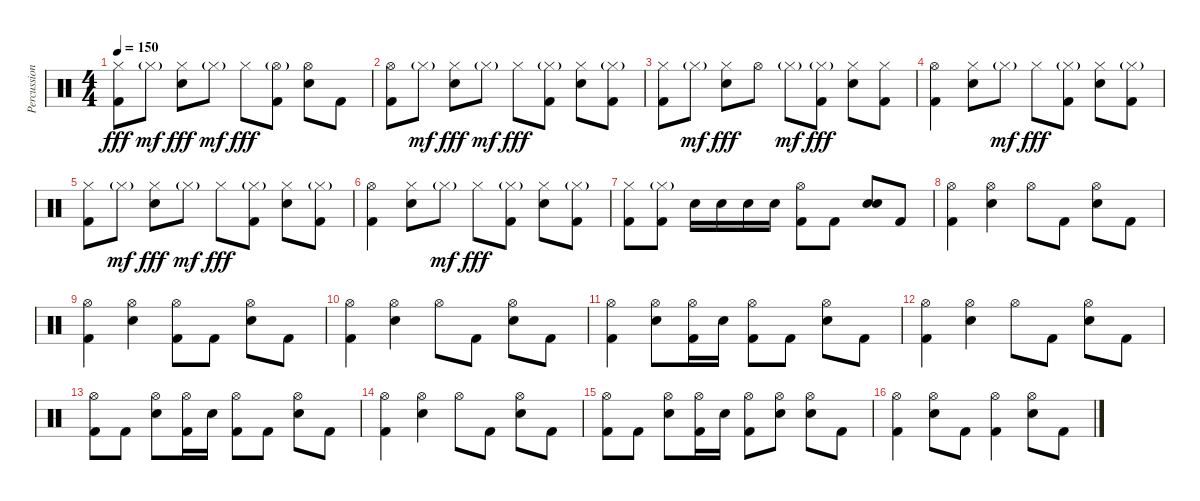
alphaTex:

\track ("Percussion" "Percussion") {instrument percussion}
\staff {score}
\articulation defaults
\ts (4 4)
\tempo 150
\clef neutral
\ks c
("Hi-Hat (closed)" "Kick (hit) 2").8{dy fff} "Hi-Hat (closed)"{g}.8{dy mf} ("Hi-Hat (closed)" "Electric Snare (hit)").8{dy fff} "Hi-Hat (closed)"{g}.8{dy mf} "Hi-Hat (closed)".8{dy fff} ("Hi-Hat (open)"{g} "Kick (hit) 2").8 ("Hi-Hat (open)" "Electric Snare (hit)").8 "Kick (hit) 2".8 |
("Hi-Hat (open)" "Kick (hit) 2").8 "Hi-Hat (closed)"{g}.8{dy mf} ("Hi-Hat (closed)" "Electric Snare (hit)").8{dy fff} "Hi-Hat (closed)"{g}.8{dy mf} "Hi-Hat (closed)".8{dy fff} ("Hi-Hat (closed)"{g} "Kick (hit) 2").8 ("Hi-Hat (closed)" "Electric Snare (hit)").8 ("Hi-Hat (closed)"{g} "Kick (hit) 2").8 |
("Hi-Hat (closed)" "Kick (hit) 2").8 "Hi-Hat (closed)"{g}.8{dy mf} ("Hi-Hat (closed)" "Electric Snare (hit)").8{dy fff} "Hi-Hat (open)".8 "Hi-Hat (closed)"{g}.8{dy mf} ("Hi-Hat (closed)"{g} "Kick (hit) 2").8{dy fff} ("Hi-Hat (closed)" "Electric Snare (hit)").8 ("Hi-Hat (closed)" "Kick (hit) 2").8 |
("Hi-Hat (open)" "Kick (hit) 2").4 ("Hi-Hat (closed)" "Electric Snare (hit)").8 "Hi-Hat (closed)"{g}.8{dy mf} "Hi-Hat (closed)".8{dy fff} ("Hi-Hat (closed)"{g} "Kick (hit) 2").8 ("Hi-Hat (closed)" "Electric Snare (hit)").8 ("Hi-Hat (closed)"{g} "Kick (hit) 2").8 |
("Hi-Hat (closed)" "Kick (hit) 2").8 "Hi-Hat (closed)"{g}.8{dy mf} ("Hi-Hat (closed)" "Electric Snare (hit)").8{dy fff} "Hi-Hat (closed)"{g}.8{dy mf} "Hi-Hat (closed)".8{dy fff} ("Hi-Hat (closed)"{g} "Kick (hit) 2").8 ("Hi-Hat (closed)" "Electric Snare (hit)").8 ("Hi-Hat (closed)"{g} "Kick (hit) 2").8 |
("Hi-Hat (open)" "Kick (hit) 2").4 ("Hi-Hat (closed)" "Electric Snare (hit)").8 "Hi-Hat (closed)"{g}.8{dy mf} "Hi-Hat (closed)".8{dy fff} ("Hi-Hat (closed)"{g} "Kick (hit) 2").8 ("Hi-Hat (closed)" "Electric Snare (hit)").8 ("Hi-Hat (closed)"{g} "Kick (hit) 2").8 |
("Hi-Hat (closed)" "Kick (hit) 2").8 ("Hi-Hat (closed)"{g} "Kick (hit) 2").8 "Electric Snare (hit)".16 "Electric Snare (hit)".16 "Electric Snare (hit)".16 "Electric Snare (hit)".16 ("Hi-Hat (open)" "Kick (hit) 2").8 "Kick (hit) 2".8 ("Electric Snare (hit)" "Electric Snare (hit)").8{bd 480} "Kick (hit) 2".8 |
("Hi-Hat (open)" "Kick (hit) 2").4 ("Hi-Hat (open)" "Electric Snare (hit)").4 "Hi-Hat (open)".8 "Kick (hit) 2".8 ("Hi-Hat (open)" "Electric Snare (hit)").8 "Kick (hit) 2".8 |
("Hi-Hat (open)" "Kick (hit) 2").4 ("Hi-Hat (open)" "Electric Snare (hit)").4 ("Hi-Hat (open)" "Kick (hit) 2").8 "Kick (hit) 2".8 ("Hi-Hat (open)" "Electric Snare (hit)").8 "Kick (hit) 2".8 |
("Hi-Hat (open)" "Kick (hit) 2").4 ("Hi-Hat (open)" "Electric Snare (hit)").4 "Hi-Hat (open)".8 "Kick (hit) 2".8 ("Hi-Hat (open)" "Electric Snare (hit)").8 "Kick (hit) 2".8 |
("Hi-Hat (open)" "Kick (hit) 2").4 ("Hi-Hat (open)" "Electric Snare (hit)").8 ("Hi-Hat (open)" "Kick (hit) 2").16 "Electric Snare (hit)".16 ("Hi-Hat (open)" "Kick (hit) 2").8 "Kick (hit) 2".8 ("Hi-Hat (open)" "Electric Snare (hit)").8 "Kick (hit) 2".8 |
("Hi-Hat (open)" "Kick (hit) 2").4 ("Hi-Hat (open)" "Electric Snare (hit)").4 "Hi-Hat (open)".8 "Kick (hit) 2".8 ("Hi-Hat (open)" "Electric Snare (hit)").8 "Kick (hit) 2".8 |
("Hi-Hat (open)" "Kick (hit) 2").8 "Kick (hit) 2".8 ("Hi-Hat (open)" "Electric Snare (hit)").8 ("Hi-Hat (open)" "Kick (hit) 2").16 "Electric Snare (hit)".16 ("Hi-Hat (open)" "Kick (hit) 2").8 "Kick (hit) 2".8 ("Hi-Hat (open)" "Electric Snare (hit)").8 "Kick (hit) 2".8 |
("Hi-Hat (open)" "Kick (hit) 2").4 ("Hi-Hat (open)" "Electric Snare (hit)").4 "Hi-Hat (open)".8 "Kick (hit) 2".8 ("Hi-Hat (open)" "Electric Snare (hit)").8 "Kick (hit) 2".8 |
("Hi-Hat (open)" "Kick (hit) 2").8 "Kick (hit) 2".8 ("Hi-Hat (open)" "Electric Snare (hit)").8 ("Hi-Hat (open)" "Kick (hit) 2").16 "Electric Snare (hit)".16 ("Hi-Hat (open)" "Kick (hit) 2").8 ("Hi-Hat (open)" "Electric Snare (hit)").8 ("Hi-Hat (open)" "Electric Snare (hit)").8 "Kick (hit) 2".8 |
("Hi-Hat (open)" "Kick (hit) 2").4 ("Hi-Hat (open)" "Electric Snare (hit)").8 "Kick (hit) 2".8 ("Hi-Hat (open)" "Kick (hit) 2").4 ("Hi-Hat (open)" "Electric Snare (hit)").8 "Kick (hit) 2".8
